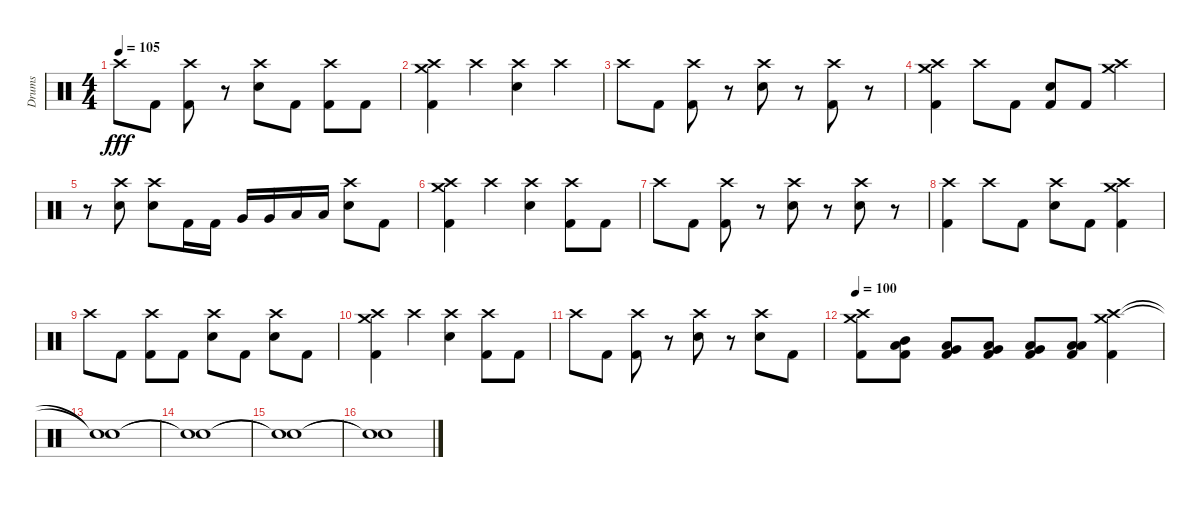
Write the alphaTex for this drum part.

\track ("Drums" "Drums") {instrument percussion}
\staff {score}
\articulation defaults
\ts (4 4)
\tempo 105
\clef neutral
\ks c "Crash high (hit)".8{dy fff} "Kick (hit) 2".8
("Crash high (hit)" "Kick (hit) 2").8 r.8 ("Crash high (hit)" "Electric Snare (hit)").8 "Kick (hit) 2".8 ("Crash high (hit)" "Kick (hit) 2").8 "Kick (hit) 2".8 |
("Crash high (hit)" "Crash medium (hit)" "Kick (hit) 2").4 "Crash high (hit)".4 ("Crash high (hit)" "Electric Snare (hit)").4 "Crash high (hit)".4 |
"Crash high (hit)".8 "Kick (hit) 2".8 ("Crash high (hit)" "Kick (hit) 2").8 r.8 ("Crash high (hit)" "Electric Snare (hit)").8 r.8 ("Crash high (hit)" "Kick (hit) 2").8 r.8 |
("Crash medium (hit)" "Crash high (hit)" "Kick (hit) 2").4 "Crash high (hit)".8 "Kick (hit) 2".8 ("Electric Snare (hit)" "Kick (hit) 2").8 "Kick (hit) 2".8 ("Crash medium (hit)" "Crash high (hit)").4 |
r.8 ("Crash high (hit)" "Electric Snare (hit)").8 ("Crash high (hit)" "Electric Snare (hit)").8 "Kick (hit) 2".16 "Kick (hit) 2".16 "Very Low Tom (hit)".16 "Very Low Tom (hit)".16 "Low Floor Tom (hit)".16 "Low Floor Tom (hit)".16 ("Crash high (hit)" "Electric Snare (hit)").8 "Kick (hit) 2".8 |
("Crash high (hit)" "Crash medium (hit)" "Kick (hit) 2").4 "Crash high (hit)".4 ("Crash high (hit)" "Electric Snare (hit)").4 ("Crash high (hit)" "Kick (hit) 2").8 "Kick (hit) 2".8 |
"Crash high (hit)".8 "Kick (hit) 2".8 ("Crash high (hit)" "Kick (hit) 2").8 r.8 ("Crash high (hit)" "Electric Snare (hit)").8 r.8 ("Crash high (hit)" "Electric Snare (hit)").8 r.8 |
("Crash high (hit)" "Kick (hit) 2").4 "Crash high (hit)".8 "Kick (hit) 2".8 ("Crash high (hit)" "Electric Snare (hit)").8 "Kick (hit) 2".8 ("Crash high (hit)" "Crash medium (hit)" "Kick (hit) 2").4 |
"Crash high (hit)".8 "Kick (hit) 2".8 ("Crash high (hit)" "Kick (hit) 2").8 "Kick (hit) 2".8 ("Crash high (hit)" "Electric Snare (hit)").8 "Kick (hit) 2".8 ("Crash high (hit)" "Electric Snare (hit)").8 "Kick (hit) 2".8 |
("Crash high (hit)" "Crash medium (hit)" "Kick (hit) 2").4 "Crash high (hit)".4 ("Crash high (hit)" "Electric Snare (hit)").4 ("Crash high (hit)" "Kick (hit) 2").8 "Kick (hit) 2".8 |
"Crash high (hit)".8 "Kick (hit) 2".8 ("Crash high (hit)" "Kick (hit) 2").8 r.8 ("Crash high (hit)" "Electric Snare (hit)").8 r.8 ("Crash high (hit)" "Electric Snare (hit)").8 "Kick (hit) 2".8 |
\tempo 100
("Crash medium (hit)" "Crash high (hit)" "Kick (hit) 2").8 ("Mid Tom (hit)" "Low Tom (hit)" "Kick (hit) 2").8 ("Low Tom (hit)" "Very Low Tom (hit)" "Kick (hit) 2").8 ("Very Low Tom (hit)" "Low Floor Tom (hit)" "Kick (hit) 2").8 ("Low Tom (hit)" "Very Low Tom (hit)" "Kick (hit) 2").8 ("Low Floor Tom (hit)" "Low Floor Tom (hit)" "Kick (hit) 2").8 ("Crash high (hit)" "Crash medium (hit)" "Kick (hit) 2").4 |
("Snare (hit)"{t} "Snare (hit)"{t}).1 |
("Snare (hit)"{t} "Snare (hit)"{t}).1 |
("Snare (hit)"{t} "Snare (hit)"{t}).1 |
("Snare (hit)"{t} "Snare (hit)"{t}).1
